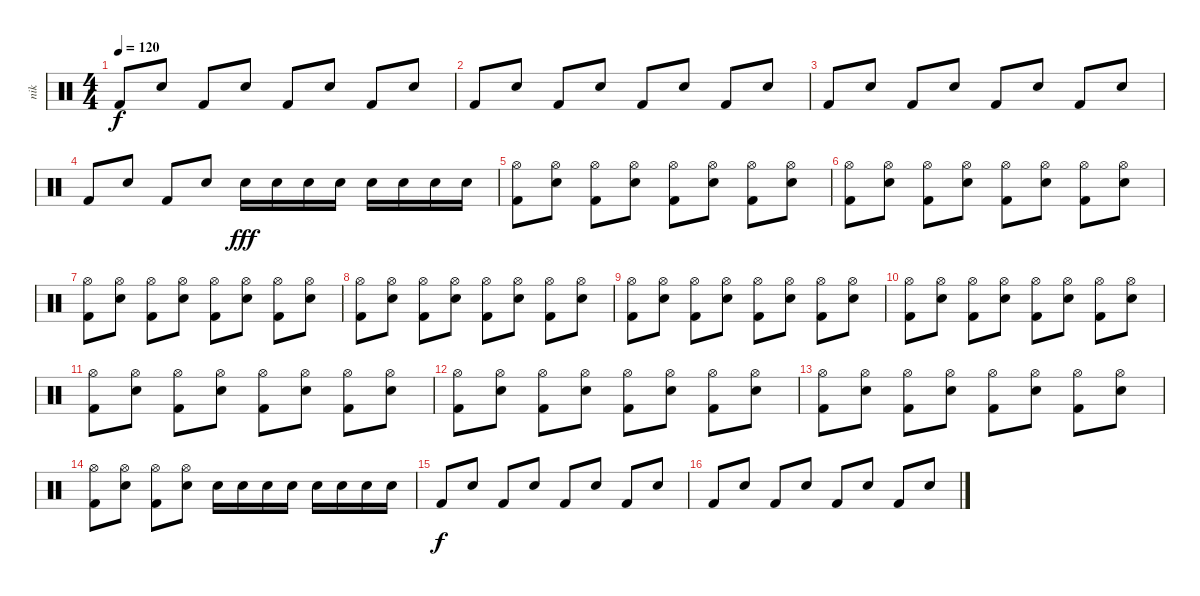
\track ("nik" "nik") {instrument percussion}
\staff {score}
\articulation defaults
\ts (4 4)
\tempo 120
\clef neutral
\ks c "Kick (hit) 2".8{dy f} "Electric Snare (hit)".8 "Kick (hit) 2".8 "Electric Snare (hit)".8 "Kick (hit) 2".8 "Electric Snare (hit)".8 "Kick (hit) 2".8 "Electric Snare (hit)".8
|
"Kick (hit) 2".8 "Electric Snare (hit)".8 "Kick (hit) 2".8 "Electric Snare (hit)".8 "Kick (hit) 2".8 "Electric Snare (hit)".8 "Kick (hit) 2".8 "Electric Snare (hit)".8 |
"Kick (hit) 2".8 "Electric Snare (hit)".8 "Kick (hit) 2".8 "Electric Snare (hit)".8 "Kick (hit) 2".8 "Electric Snare (hit)".8 "Kick (hit) 2".8 "Electric Snare (hit)".8 |
"Kick (hit) 2".8 "Electric Snare (hit)".8 "Kick (hit) 2".8 "Electric Snare (hit)".8 "Electric Snare (hit)".16{dy fff} "Electric Snare (hit)".16 "Electric Snare (hit)".16 "Electric Snare (hit)".16 "Electric Snare (hit)".16 "Electric Snare (hit)".16 "Electric Snare (hit)".16 "Electric Snare (hit)".16 |
("Kick (hit) 2" "Hi-Hat (open)").8 ("Electric Snare (hit)" "Hi-Hat (open)").8 ("Kick (hit) 2" "Hi-Hat (open)").8 ("Electric Snare (hit)" "Hi-Hat (open)").8 ("Kick (hit) 2" "Hi-Hat (open)").8 ("Electric Snare (hit)" "Hi-Hat (open)").8 ("Kick (hit) 2" "Hi-Hat (open)").8 ("Electric Snare (hit)" "Hi-Hat (open)").8 |
("Kick (hit) 2" "Hi-Hat (open)").8 ("Electric Snare (hit)" "Hi-Hat (open)").8 ("Kick (hit) 2" "Hi-Hat (open)").8 ("Electric Snare (hit)" "Hi-Hat (open)").8 ("Kick (hit) 2" "Hi-Hat (open)").8 ("Electric Snare (hit)" "Hi-Hat (open)").8 ("Kick (hit) 2" "Hi-Hat (open)").8 ("Electric Snare (hit)" "Hi-Hat (open)").8 |
("Kick (hit) 2" "Hi-Hat (open)").8 ("Electric Snare (hit)" "Hi-Hat (open)").8 ("Kick (hit) 2" "Hi-Hat (open)").8 ("Electric Snare (hit)" "Hi-Hat (open)").8 ("Kick (hit) 2" "Hi-Hat (open)").8 ("Electric Snare (hit)" "Hi-Hat (open)").8 ("Kick (hit) 2" "Hi-Hat (open)").8 ("Electric Snare (hit)" "Hi-Hat (open)").8 |
("Kick (hit) 2" "Hi-Hat (open)").8 ("Electric Snare (hit)" "Hi-Hat (open)").8 ("Kick (hit) 2" "Hi-Hat (open)").8 ("Electric Snare (hit)" "Hi-Hat (open)").8 ("Kick (hit) 2" "Hi-Hat (open)").8 ("Electric Snare (hit)" "Hi-Hat (open)").8 ("Kick (hit) 2" "Hi-Hat (open)").8 ("Electric Snare (hit)" "Hi-Hat (open)").8 |
("Kick (hit) 2" "Hi-Hat (open)").8 ("Electric Snare (hit)" "Hi-Hat (open)").8 ("Kick (hit) 2" "Hi-Hat (open)").8 ("Electric Snare (hit)" "Hi-Hat (open)").8 ("Kick (hit) 2" "Hi-Hat (open)").8 ("Electric Snare (hit)" "Hi-Hat (open)").8 ("Kick (hit) 2" "Hi-Hat (open)").8 ("Electric Snare (hit)" "Hi-Hat (open)").8 |
("Kick (hit) 2" "Hi-Hat (open)").8 ("Electric Snare (hit)" "Hi-Hat (open)").8 ("Kick (hit) 2" "Hi-Hat (open)").8 ("Electric Snare (hit)" "Hi-Hat (open)").8 ("Kick (hit) 2" "Hi-Hat (open)").8 ("Electric Snare (hit)" "Hi-Hat (open)").8 ("Kick (hit) 2" "Hi-Hat (open)").8 ("Electric Snare (hit)" "Hi-Hat (open)").8 |
("Kick (hit) 2" "Hi-Hat (open)").8 ("Electric Snare (hit)" "Hi-Hat (open)").8 ("Kick (hit) 2" "Hi-Hat (open)").8 ("Electric Snare (hit)" "Hi-Hat (open)").8 ("Kick (hit) 2" "Hi-Hat (open)").8 ("Electric Snare (hit)" "Hi-Hat (open)").8 ("Kick (hit) 2" "Hi-Hat (open)").8 ("Electric Snare (hit)" "Hi-Hat (open)").8 |
("Kick (hit) 2" "Hi-Hat (open)").8 ("Electric Snare (hit)" "Hi-Hat (open)").8 ("Kick (hit) 2" "Hi-Hat (open)").8 ("Electric Snare (hit)" "Hi-Hat (open)").8 ("Kick (hit) 2" "Hi-Hat (open)").8 ("Electric Snare (hit)" "Hi-Hat (open)").8 ("Kick (hit) 2" "Hi-Hat (open)").8 ("Electric Snare (hit)" "Hi-Hat (open)").8 |
("Kick (hit) 2" "Hi-Hat (open)").8 ("Electric Snare (hit)" "Hi-Hat (open)").8 ("Kick (hit) 2" "Hi-Hat (open)").8 ("Electric Snare (hit)" "Hi-Hat (open)").8 ("Kick (hit) 2" "Hi-Hat (open)").8 ("Electric Snare (hit)" "Hi-Hat (open)").8 ("Kick (hit) 2" "Hi-Hat (open)").8 ("Electric Snare (hit)" "Hi-Hat (open)").8 |
("Kick (hit) 2" "Hi-Hat (open)").8 ("Electric Snare (hit)" "Hi-Hat (open)").8 ("Kick (hit) 2" "Hi-Hat (open)").8 ("Electric Snare (hit)" "Hi-Hat (open)").8 "Electric Snare (hit)".16 "Electric Snare (hit)".16 "Electric Snare (hit)".16 "Electric Snare (hit)".16 "Electric Snare (hit)".16 "Electric Snare (hit)".16 "Electric Snare (hit)".16 "Electric Snare (hit)".16 |
"Kick (hit) 2".8{dy f} "Electric Snare (hit)".8 "Kick (hit) 2".8 "Electric Snare (hit)".8 "Kick (hit) 2".8 "Electric Snare (hit)".8 "Kick (hit) 2".8 "Electric Snare (hit)".8 |
"Kick (hit) 2".8 "Electric Snare (hit)".8 "Kick (hit) 2".8 "Electric Snare (hit)".8 "Kick (hit) 2".8 "Electric Snare (hit)".8 "Kick (hit) 2".8 "Electric Snare (hit)".8
